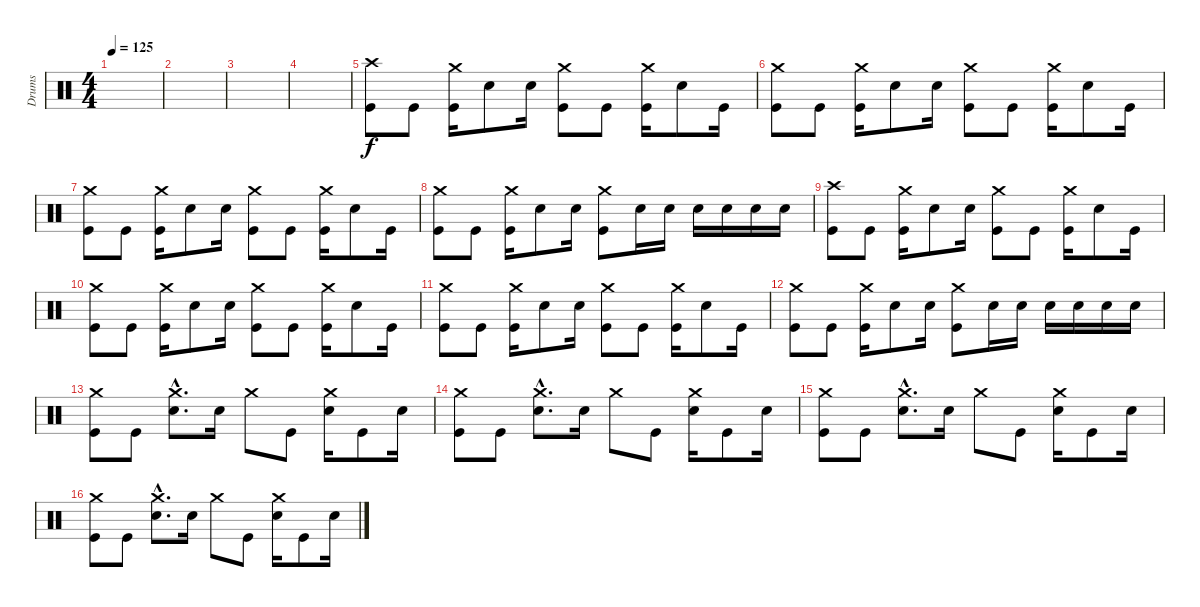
\track ("Drums" "Drums") {instrument percussion}
\staff {score}
\articulation defaults
\ts (4 4)
\tempo 125
\clef neutral
\ks c
|
|
|
|
("Kick (hit)" "Crash high (hit)").8 "Kick (hit)".8 ("Kick (hit)" "Crash medium (hit)").16 "Snare (hit) 2".8 "Snare (hit) 2".16 ("Kick (hit)" "Crash medium (hit)").8 "Kick (hit)".8 ("Kick (hit)" "Crash medium (hit)").16 "Snare (hit) 2".8 "Kick (hit)".16 |
("Kick (hit)" "Crash medium (hit)").8 "Kick (hit)".8 ("Kick (hit)" "Crash medium (hit)").16 "Snare (hit) 2".8 "Snare (hit) 2".16 ("Kick (hit)" "Crash medium (hit)").8 "Kick (hit)".8 ("Kick (hit)" "Crash medium (hit)").16 "Snare (hit) 2".8 "Kick (hit)".16 |
("Kick (hit)" "Crash medium (hit)").8 "Kick (hit)".8 ("Kick (hit)" "Crash medium (hit)").16 "Snare (hit) 2".8 "Snare (hit) 2".16 ("Kick (hit)" "Crash medium (hit)").8 "Kick (hit)".8 ("Kick (hit)" "Crash medium (hit)").16 "Snare (hit) 2".8 "Kick (hit)".16 |
("Kick (hit)" "Crash medium (hit)").8 "Kick (hit)".8 ("Kick (hit)" "Crash medium (hit)").16 "Snare (hit) 2".8 "Snare (hit) 2".16 ("Kick (hit)" "Crash medium (hit)").8 "Snare (hit) 2".16 "Snare (hit) 2".16 "Snare (hit) 2".16 "Snare (hit) 2".16 "Snare (hit) 2".16 "Snare (hit) 2".16 |
("Kick (hit)" "Crash high (hit)").8 "Kick (hit)".8 ("Kick (hit)" "Crash medium (hit)").16 "Snare (hit) 2".8 "Snare (hit) 2".16 ("Kick (hit)" "Crash medium (hit)").8 "Kick (hit)".8 ("Kick (hit)" "Crash medium (hit)").16 "Snare (hit) 2".8 "Kick (hit)".16 |
("Kick (hit)" "Crash medium (hit)").8 "Kick (hit)".8 ("Kick (hit)" "Crash medium (hit)").16 "Snare (hit) 2".8 "Snare (hit) 2".16 ("Kick (hit)" "Crash medium (hit)").8 "Kick (hit)".8 ("Kick (hit)" "Crash medium (hit)").16 "Snare (hit) 2".8 "Kick (hit)".16 |
("Kick (hit)" "Crash medium (hit)").8 "Kick (hit)".8 ("Kick (hit)" "Crash medium (hit)").16 "Snare (hit) 2".8 "Snare (hit) 2".16 ("Kick (hit)" "Crash medium (hit)").8 "Kick (hit)".8 ("Kick (hit)" "Crash medium (hit)").16 "Snare (hit) 2".8 "Kick (hit)".16 |
("Kick (hit)" "Crash medium (hit)").8 "Kick (hit)".8 ("Kick (hit)" "Crash medium (hit)").16 "Snare (hit) 2".8 "Snare (hit) 2".16 ("Kick (hit)" "Crash medium (hit)").8 "Snare (hit) 2".16 "Snare (hit) 2".16 "Snare (hit) 2".16 "Snare (hit) 2".16 "Snare (hit) 2".16 "Snare (hit) 2".16 |
("Kick (hit)" "Crash medium (hit)").8 "Kick (hit)".8 ("Snare (hit) 2"{hac} "Crash medium (hit)"{hac}).8{d} "Snare (hit) 2".16 "Crash medium (hit)".8 "Kick (hit)".8 ("Snare (hit) 2" "Crash medium (hit)").16 "Kick (hit)".8 "Snare (hit) 2".16 |
("Kick (hit)" "Crash medium (hit)").8 "Kick (hit)".8 ("Snare (hit) 2"{hac} "Crash medium (hit)"{hac}).8{d} "Snare (hit) 2".16 "Crash medium (hit)".8 "Kick (hit)".8 ("Snare (hit) 2" "Crash medium (hit)").16 "Kick (hit)".8 "Snare (hit) 2".16 |
("Kick (hit)" "Crash medium (hit)").8 "Kick (hit)".8 ("Snare (hit) 2"{hac} "Crash medium (hit)"{hac}).8{d} "Snare (hit) 2".16 "Crash medium (hit)".8 "Kick (hit)".8 ("Snare (hit) 2" "Crash medium (hit)").16 "Kick (hit)".8 "Snare (hit) 2".16 |
("Kick (hit)" "Crash medium (hit)").8 "Kick (hit)".8 ("Snare (hit) 2"{hac} "Crash medium (hit)"{hac}).8{d} "Snare (hit) 2".16 "Crash medium (hit)".8 "Kick (hit)".8 ("Snare (hit) 2" "Crash medium (hit)").16 "Kick (hit)".8 "Snare (hit) 2".16
